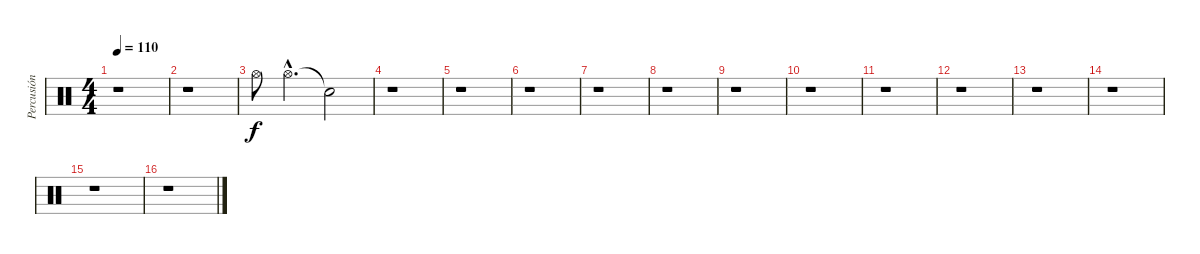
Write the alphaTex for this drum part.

\track ("Percusión" "Percusión") {instrument percussion}
\staff {score}
\articulation defaults
\ts (4 4)
\tempo 110
\clef neutral
\ks c
r.1{dy f} |
r.1 |
"Hi-Hat (open)".8 "Hi-Hat (open)"{hac}.4{d} "Snare (hit)"{t}.2 |
r.1 |
r.1 |
r.1 |
r.1 |
r.1 |
r.1 |
r.1 |
r.1 |
r.1 |
r.1 |
r.1 |
r.1 |
r.1
